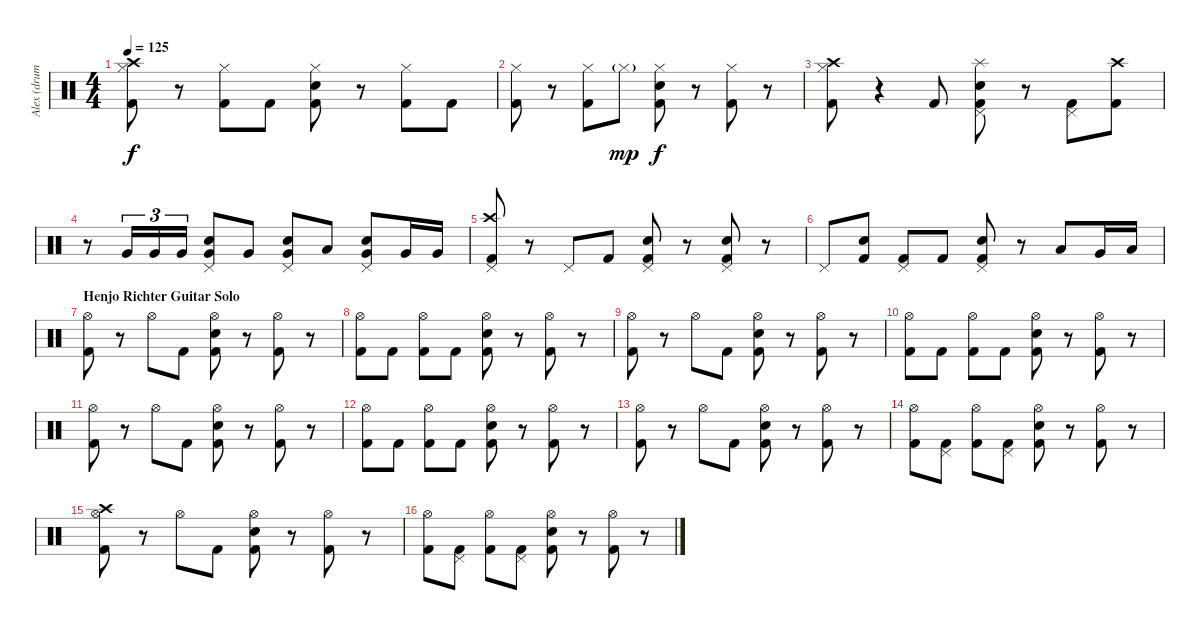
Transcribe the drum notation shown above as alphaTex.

\track ("Alex (drums)" "Alex (drum") {instrument percussion}
\staff {score}
\articulation defaults
\ts (4 4)
\tempo 125
\clef neutral
\ks c
("Hi-Hat (closed)" "Kick (hit) 2" "Crash high (hit)").8{dy f} r.8 ("Hi-Hat (closed)" "Kick (hit) 2").8 "Kick (hit) 2".8 ("Hi-Hat (closed)" "Snare (hit) 2" "Kick (hit) 2").8 r.8 ("Hi-Hat (closed)" "Kick (hit) 2").8 "Kick (hit) 2".8 |
("Hi-Hat (closed)" "Kick (hit) 2").8 r.8 ("Hi-Hat (closed)" "Kick (hit) 2").8 "Hi-Hat (closed)"{g}.8{dy mp} ("Hi-Hat (closed)" "Snare (hit) 2" "Kick (hit) 2").8{dy f} r.8 ("Hi-Hat (closed)" "Kick (hit) 2").8 r.8 |
("Hi-Hat (closed)" "Kick (hit) 2" "Crash high (hit)").8 r.4 "Kick (hit) 2".8 ("Pedal Hi-Hat (hit)" "Snare (hit) 2" "Kick (hit) 2" "Splash (hit)").8 r.8 ("Pedal Hi-Hat (hit)" "Kick (hit) 2").8 ("Kick (hit) 2" "Crash high (hit)").8 |
r.8 "Very Low Tom (hit)".16{tu (3 2)} "Very Low Tom (hit)".16{tu (3 2)} "Very Low Tom (hit)".16{tu (3 2)} ("Pedal Hi-Hat (hit)" "Snare (hit) 2" "Very Low Tom (hit)").8 "Very Low Tom (hit)".8 ("Pedal Hi-Hat (hit)" "Snare (hit) 2" "Very Low Tom (hit)").8 "Low Floor Tom (hit)".8 ("Pedal Hi-Hat (hit)" "Snare (hit) 2" "Very Low Tom (hit)").8 "Very Low Tom (hit)".16 "Very Low Tom (hit)".16 |
("Pedal Hi-Hat (hit)" "Kick (hit) 2" "Crash high (hit)").8 r.8 "Pedal Hi-Hat (hit)".8 "Kick (hit) 2".8 ("Pedal Hi-Hat (hit)" "Snare (hit) 2" "Kick (hit) 2").8 r.8 ("Pedal Hi-Hat (hit)" "Snare (hit) 2" "Kick (hit) 2").8 r.8 |
"Pedal Hi-Hat (hit)".8 ("Snare (hit) 2" "Kick (hit) 2").8 ("Pedal Hi-Hat (hit)" "Kick (hit) 2").8 "Kick (hit) 2".8 ("Pedal Hi-Hat (hit)" "Snare (hit) 2" "Kick (hit) 2").8 r.8 "Low Tom (hit)".8 "Very Low Tom (hit)".16 "Low Floor Tom (hit)".16 |
\section ("" "Henjo Richter Guitar Solo")
("Hi-Hat (open)" "Kick (hit) 2").8 r.8 "Hi-Hat (open)".8 "Kick (hit) 2".8 ("Hi-Hat (open)" "Snare (hit) 2" "Kick (hit) 2").8 r.8 ("Hi-Hat (open)" "Kick (hit) 2").8 r.8 |
("Hi-Hat (open)" "Kick (hit) 2").8 "Kick (hit) 2".8 ("Hi-Hat (open)" "Kick (hit) 2").8 "Kick (hit) 2".8 ("Hi-Hat (open)" "Snare (hit) 2" "Kick (hit) 2").8 r.8 ("Hi-Hat (open)" "Kick (hit) 2").8 r.8 |
("Hi-Hat (open)" "Kick (hit) 2").8 r.8 "Hi-Hat (open)".8 "Kick (hit) 2".8 ("Hi-Hat (open)" "Snare (hit) 2" "Kick (hit) 2").8 r.8 ("Hi-Hat (open)" "Kick (hit) 2").8 r.8 |
("Hi-Hat (open)" "Kick (hit) 2").8 "Kick (hit) 2".8 ("Hi-Hat (open)" "Kick (hit) 2").8 "Kick (hit) 2".8 ("Hi-Hat (open)" "Snare (hit) 2" "Kick (hit) 2").8 r.8 ("Hi-Hat (open)" "Kick (hit) 2").8 r.8 |
("Hi-Hat (open)" "Kick (hit) 2").8 r.8 "Hi-Hat (open)".8 "Kick (hit) 2".8 ("Hi-Hat (open)" "Snare (hit) 2" "Kick (hit) 2").8 r.8 ("Hi-Hat (open)" "Kick (hit) 2").8 r.8 |
("Hi-Hat (open)" "Kick (hit) 2").8 "Kick (hit) 2".8 ("Hi-Hat (open)" "Kick (hit) 2").8 "Kick (hit) 2".8 ("Hi-Hat (open)" "Snare (hit) 2" "Kick (hit) 2").8 r.8 ("Hi-Hat (open)" "Kick (hit) 2").8 r.8 |
("Hi-Hat (open)" "Kick (hit) 2").8 r.8 "Hi-Hat (open)".8 "Kick (hit) 2".8 ("Hi-Hat (open)" "Snare (hit) 2" "Kick (hit) 2").8 r.8 ("Hi-Hat (open)" "Kick (hit) 2").8 r.8 |
("Hi-Hat (open)" "Kick (hit) 2").8 ("Pedal Hi-Hat (hit)" "Kick (hit) 2").8 ("Hi-Hat (open)" "Kick (hit) 2").8 ("Pedal Hi-Hat (hit)" "Kick (hit) 2").8 ("Hi-Hat (open)" "Snare (hit) 2" "Kick (hit) 2").8 r.8 ("Hi-Hat (open)" "Kick (hit) 2").8 r.8 |
("Hi-Hat (open)" "Kick (hit) 2" "Crash high (hit)").8 r.8 "Hi-Hat (open)".8 "Kick (hit) 2".8 ("Hi-Hat (open)" "Snare (hit) 2" "Kick (hit) 2").8 r.8 ("Hi-Hat (open)" "Kick (hit) 2").8 r.8 |
("Hi-Hat (open)" "Kick (hit) 2").8 ("Pedal Hi-Hat (hit)" "Kick (hit) 2").8 ("Hi-Hat (open)" "Kick (hit) 2").8 ("Pedal Hi-Hat (hit)" "Kick (hit) 2").8 ("Hi-Hat (open)" "Snare (hit) 2" "Kick (hit) 2").8 r.8 ("Hi-Hat (open)" "Kick (hit) 2").8 r.8
